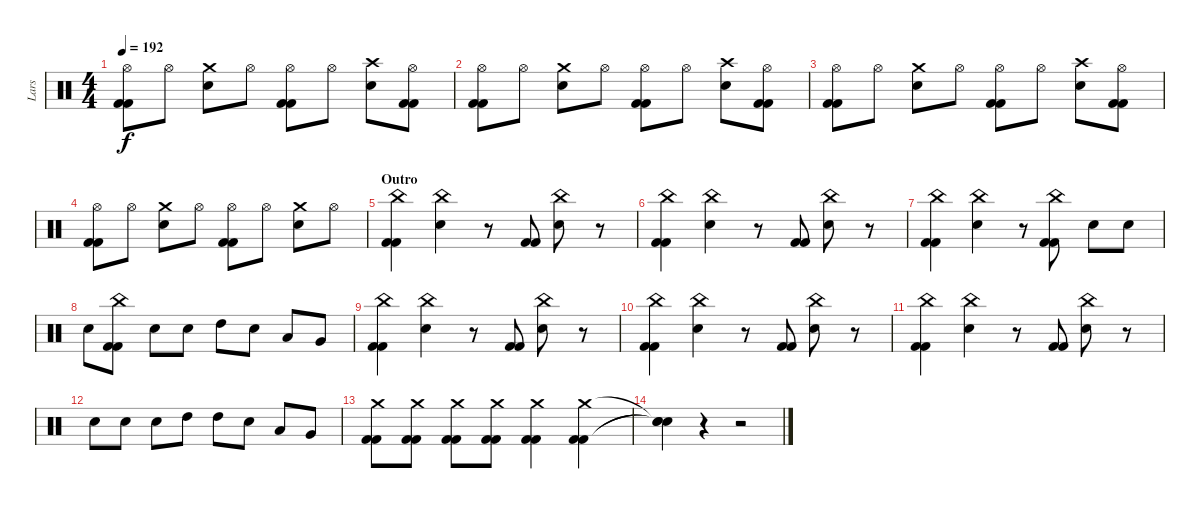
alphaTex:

\track ("Lars" "Lars") {instrument percussion}
\staff {score}
\articulation defaults
\ts (4 4)
\tempo 192
\clef neutral
\ks c
("Hi-Hat (open)" "Kick (hit) 2" "Kick (hit) 2").8{dy f} "Hi-Hat (open)".8 ("Electric Snare (hit)" "Crash medium (hit)").8 "Hi-Hat (open)".8 ("Hi-Hat (open)" "Kick (hit) 2" "Kick (hit) 2").8 "Hi-Hat (open)".8 ("Electric Snare (hit)" "Crash high (hit)").8 ("Hi-Hat (open)" "Kick (hit) 2" "Kick (hit) 2").8 |
("Hi-Hat (open)" "Kick (hit) 2" "Kick (hit) 2").8 "Hi-Hat (open)".8 ("Electric Snare (hit)" "Crash medium (hit)").8 "Hi-Hat (open)".8 ("Hi-Hat (open)" "Kick (hit) 2" "Kick (hit) 2").8 "Hi-Hat (open)".8 ("Electric Snare (hit)" "Crash high (hit)").8 ("Hi-Hat (open)" "Kick (hit) 2" "Kick (hit) 2").8 |
("Hi-Hat (open)" "Kick (hit) 2" "Kick (hit) 2").8 "Hi-Hat (open)".8 ("Electric Snare (hit)" "Crash medium (hit)").8 "Hi-Hat (open)".8 ("Hi-Hat (open)" "Kick (hit) 2" "Kick (hit) 2").8 "Hi-Hat (open)".8 ("Electric Snare (hit)" "Crash high (hit)").8 ("Hi-Hat (open)" "Kick (hit) 2" "Kick (hit) 2").8 |
("Hi-Hat (open)" "Kick (hit) 2" "Kick (hit) 2").8 "Hi-Hat (open)".8 ("Electric Snare (hit)" "Crash medium (hit)").8 "Hi-Hat (open)".8 ("Hi-Hat (open)" "Kick (hit) 2" "Kick (hit) 2").8 "Hi-Hat (open)".8 ("Electric Snare (hit)" "Crash medium (hit)").8 "Hi-Hat (open)".8 |
\section ("" "Outro")
("China (hit)" "Kick (hit) 2" "Kick (hit) 2").4 ("Electric Snare (hit)" "China (hit)").4 r.8 ("Kick (hit) 2" "Kick (hit) 2").8 ("Electric Snare (hit)" "China (hit)").8 r.8 |
("China (hit)" "Kick (hit) 2" "Kick (hit) 2").4 ("Electric Snare (hit)" "China (hit)").4 r.8 ("Kick (hit) 2" "Kick (hit) 2").8 ("Electric Snare (hit)" "China (hit)").8 r.8 |
("China (hit)" "Kick (hit) 2" "Kick (hit) 2").4 ("Electric Snare (hit)" "China (hit)").4 r.8 ("Kick (hit) 2" "Kick (hit) 2" "China (hit)").8 "Electric Snare (hit)".8 "Electric Snare (hit)".8 |
"Electric Snare (hit)".8 ("China (hit)" "Kick (hit) 2" "Kick (hit) 2").8 "Electric Snare (hit)".8 "Electric Snare (hit)".8 "High Tom (hit)".8 "Electric Snare (hit)".8 "Low Tom (hit)".8 "Very Low Tom (hit)".8 |
("China (hit)" "Kick (hit) 2" "Kick (hit) 2").4 ("Electric Snare (hit)" "China (hit)").4 r.8 ("Kick (hit) 2" "Kick (hit) 2").8 ("Electric Snare (hit)" "China (hit)").8 r.8 |
("China (hit)" "Kick (hit) 2" "Kick (hit) 2").4 ("Electric Snare (hit)" "China (hit)").4 r.8 ("Kick (hit) 2" "Kick (hit) 2").8 ("Electric Snare (hit)" "China (hit)").8 r.8 |
("China (hit)" "Kick (hit) 2" "Kick (hit) 2").4 ("Electric Snare (hit)" "China (hit)").4 r.8 ("Kick (hit) 2" "Kick (hit) 2").8 ("Electric Snare (hit)" "China (hit)").8 r.8 |
"Electric Snare (hit)".8 "Electric Snare (hit)".8 "Electric Snare (hit)".8 "High Tom (hit)".8 "High Tom (hit)".8 "Electric Snare (hit)".8 "Low Tom (hit)".8 "Very Low Tom (hit)".8 |
("Kick (hit) 2" "Kick (hit) 2" "Crash medium (hit)").8 ("Crash medium (hit)" "Kick (hit) 2" "Kick (hit) 2").8 ("Kick (hit) 2" "Kick (hit) 2" "Crash medium (hit)").8 ("Crash medium (hit)" "Kick (hit) 2" "Kick (hit) 2").8 ("Kick (hit) 2" "Kick (hit) 2" "Crash medium (hit)").4 ("Crash medium (hit)" "Kick (hit) 2" "Kick (hit) 2").4 |
("Snare (hit)"{t} "Snare (hit)"{t} "Snare (hit)"{t}).4 r.4 r.2
